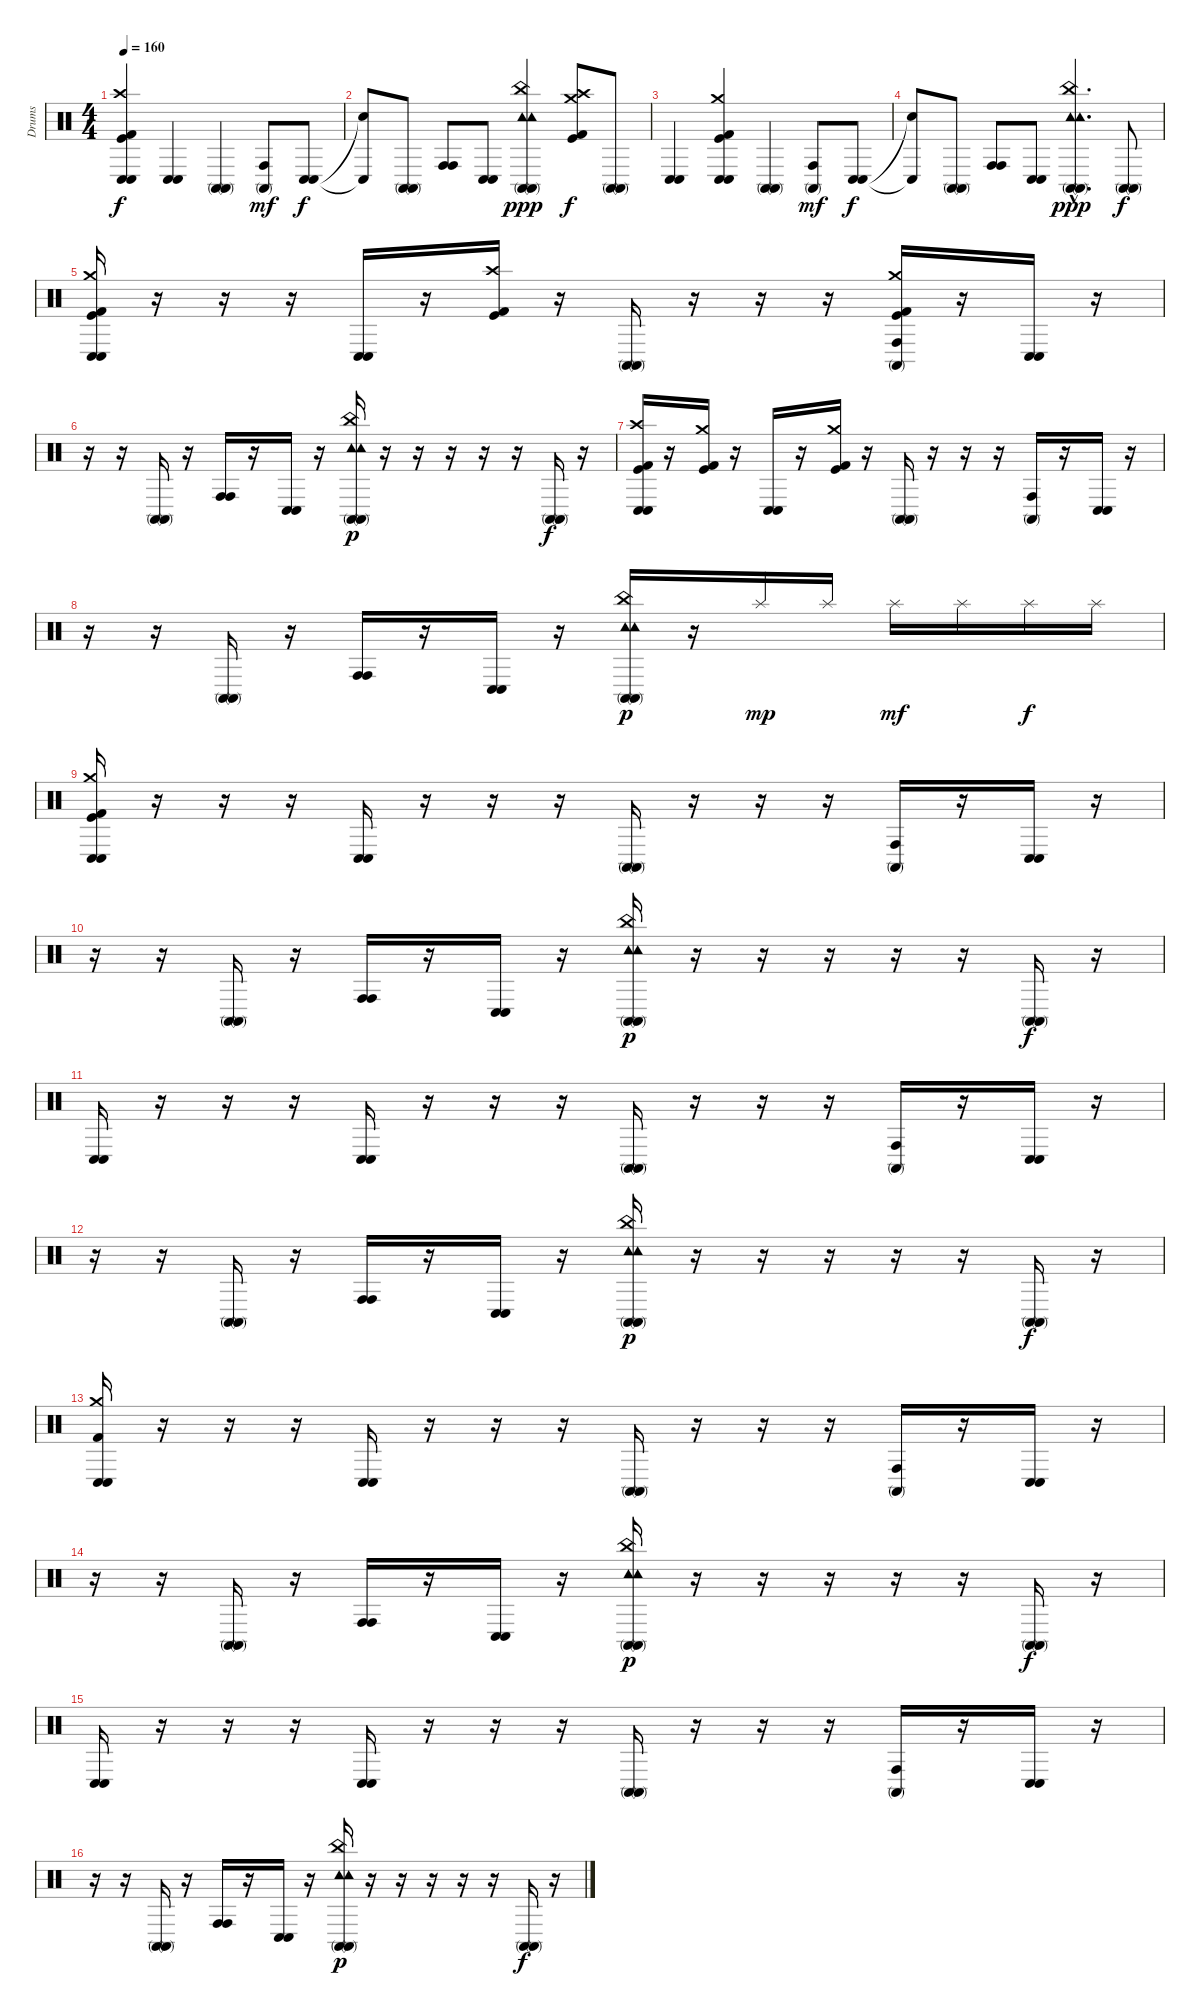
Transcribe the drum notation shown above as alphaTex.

\track ("Drums" "Drums") {instrument percussion}
\staff {score}
\articulation defaults
\ts (4 4)
\tempo 160
\clef neutral
\ks c
("Conga low (hit)" "Conga low (hit)" "Crash high (hit)" "Kick (hit)" "Kick (hit) 2").4{dy f} ("Conga low (hit)" "Conga low (hit)").4 ("Conga high (mute)" "Conga high (mute)").4 ("Conga high (hit)" "Conga high (mute)").8{dy mf} ("Conga low (hit)" "Conga low (hit)").8{dy f} |
("Conga low (hit)"{t} "Snare (hit)"{t}).8 ("Conga high (mute)" "Conga high (mute)").8 ("Conga high (hit)" "Conga high (hit)").8 ("Conga low (hit)" "Conga low (hit)").8 ("Conga high (mute)" "Conga high (mute)" "Tambourine (hit)" "Tambourine (hit)" "China (hit)").4{dy ppp} ("Crash high (hit)" "Crash medium (hit)" "Kick (hit)" "Kick (hit) 2").8{dy f} ("Conga high (mute)" "Conga high (mute)").8 |
("Conga low (hit)" "Conga low (hit)").4 ("Conga low (hit)" "Conga low (hit)" "Crash medium (hit)" "Kick (hit)" "Kick (hit) 2").4 ("Conga high (mute)" "Conga high (mute)").4 ("Conga high (hit)" "Conga high (mute)").8{dy mf} ("Conga low (hit)" "Conga low (hit)").8{dy f} |
("Conga low (hit)"{t} "Snare (hit)"{t}).8 ("Conga high (mute)" "Conga high (mute)").8 ("Conga high (hit)" "Conga high (hit)").8 ("Conga low (hit)" "Conga low (hit)").8 ("Conga high (mute)"{hac} "Conga high (mute)"{hac} "Tambourine (hit)"{hac} "Tambourine (hit)"{hac} "China (hit)"{hac}).4{d dy ppp} ("Conga high (mute)" "Conga high (mute)").8{dy f} |
("Conga low (hit)" "Conga low (hit)" "Crash medium (hit)" "Kick (hit)" "Kick (hit) 2").16 r.16 r.16 r.16 ("Conga low (hit)" "Conga low (hit)").16 r.16 ("Crash high (hit)" "Kick (hit)" "Kick (hit) 2").16 r.16 ("Conga high (mute)" "Conga high (mute)").16 r.16 r.16 r.16 ("Conga high (hit)" "Conga high (mute)" "Crash medium (hit)" "Kick (hit)" "Kick (hit) 2").16 r.16 ("Conga low (hit)" "Conga low (hit)").16 r.16 |
r.16 r.16 ("Conga high (mute)" "Conga high (mute)").16 r.16 ("Conga high (hit)" "Conga high (hit)").16 r.16 ("Conga low (hit)" "Conga low (hit)").16 r.16 ("Conga high (mute)" "Conga high (mute)" "Tambourine (hit)" "Tambourine (hit)" "China (hit)").16{dy p} r.16 r.16 r.16 r.16 r.16 ("Conga high (mute)" "Conga high (mute)").16{dy f} r.16 |
("Conga low (hit)" "Conga low (hit)" "Crash high (hit)" "Kick (hit) 2" "Kick (hit)").16 r.16 ("Crash medium (hit)" "Kick (hit) 2" "Kick (hit)").16 r.16 ("Conga low (hit)" "Conga low (hit)").16 r.16 ("Crash medium (hit)" "Kick (hit)" "Kick (hit) 2").16 r.16 ("Conga high (mute)" "Conga high (mute)").16 r.16 r.16 r.16 ("Conga high (hit)" "Conga high (mute)").16 r.16 ("Conga low (hit)" "Conga low (hit)").16 r.16 |
r.16 r.16 ("Conga high (mute)" "Conga high (mute)").16 r.16 ("Conga high (hit)" "Conga high (hit)").16 r.16 ("Conga low (hit)" "Conga low (hit)").16 r.16 ("Conga high (mute)" "Conga high (mute)" "Tambourine (hit)" "Tambourine (hit)" "China (hit)").16{dy p} r.16 "Splash (hit)".16{dy mp} "Splash (hit)".16 "Splash (hit)".16{dy mf} "Splash (hit)".16 "Splash (hit)".16{dy f} "Splash (hit)".16 |
("Conga low (hit)" "Conga low (hit)" "Crash medium (hit)" "Kick (hit) 2" "Kick (hit)").16 r.16 r.16 r.16 ("Conga low (hit)" "Conga low (hit)").16 r.16 r.16 r.16 ("Conga high (mute)" "Conga high (mute)").16 r.16 r.16 r.16 ("Conga high (hit)" "Conga high (mute)").16 r.16 ("Conga low (hit)" "Conga low (hit)").16 r.16 |
r.16 r.16 ("Conga high (mute)" "Conga high (mute)").16 r.16 ("Conga high (hit)" "Conga high (hit)").16 r.16 ("Conga low (hit)" "Conga low (hit)").16 r.16 ("Conga high (mute)" "Conga high (mute)" "Tambourine (hit)" "Tambourine (hit)" "China (hit)").16{dy p} r.16 r.16 r.16 r.16 r.16 ("Conga high (mute)" "Conga high (mute)").16{dy f} r.16 |
("Conga low (hit)" "Conga low (hit)").16 r.16 r.16 r.16 ("Conga low (hit)" "Conga low (hit)").16 r.16 r.16 r.16 ("Conga high (mute)" "Conga high (mute)").16 r.16 r.16 r.16 ("Conga high (hit)" "Conga high (mute)").16 r.16 ("Conga low (hit)" "Conga low (hit)").16 r.16 |
r.16 r.16 ("Conga high (mute)" "Conga high (mute)").16 r.16 ("Conga high (hit)" "Conga high (hit)").16 r.16 ("Conga low (hit)" "Conga low (hit)").16 r.16 ("Conga high (mute)" "Conga high (mute)" "Tambourine (hit)" "Tambourine (hit)" "China (hit)").16{dy p} r.16 r.16 r.16 r.16 r.16 ("Conga high (mute)" "Conga high (mute)").16{dy f} r.16 |
("Conga low (hit)" "Conga low (hit)" "Crash medium (hit)" "Kick (hit) 2").16 r.16 r.16 r.16 ("Conga low (hit)" "Conga low (hit)").16 r.16 r.16 r.16 ("Conga high (mute)" "Conga high (mute)").16 r.16 r.16 r.16 ("Conga high (hit)" "Conga high (mute)").16 r.16 ("Conga low (hit)" "Conga low (hit)").16 r.16 |
r.16 r.16 ("Conga high (mute)" "Conga high (mute)").16 r.16 ("Conga high (hit)" "Conga high (hit)").16 r.16 ("Conga low (hit)" "Conga low (hit)").16 r.16 ("Conga high (mute)" "Conga high (mute)" "Tambourine (hit)" "Tambourine (hit)" "China (hit)").16{dy p} r.16 r.16 r.16 r.16 r.16 ("Conga high (mute)" "Conga high (mute)").16{dy f} r.16 |
("Conga low (hit)" "Conga low (hit)").16 r.16 r.16 r.16 ("Conga low (hit)" "Conga low (hit)").16 r.16 r.16 r.16 ("Conga high (mute)" "Conga high (mute)").16 r.16 r.16 r.16 ("Conga high (hit)" "Conga high (mute)").16 r.16 ("Conga low (hit)" "Conga low (hit)").16 r.16 |
r.16 r.16 ("Conga high (mute)" "Conga high (mute)").16 r.16 ("Conga high (hit)" "Conga high (hit)").16 r.16 ("Conga low (hit)" "Conga low (hit)").16 r.16 ("Conga high (mute)" "Conga high (mute)" "Tambourine (hit)" "Tambourine (hit)" "China (hit)").16{dy p} r.16 r.16 r.16 r.16 r.16 ("Conga high (mute)" "Conga high (mute)").16{dy f} r.16
